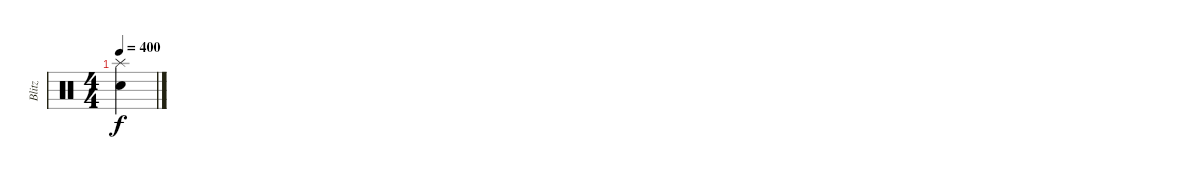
\track ("Blitz" "Blitz") {instrument percussion}
\staff {score}
\articulation defaults
\ts (4 4)
\tempo 400
\clef neutral
\ks c
("Splash (hit)" "Electric Snare (hit)").4{dy f}
